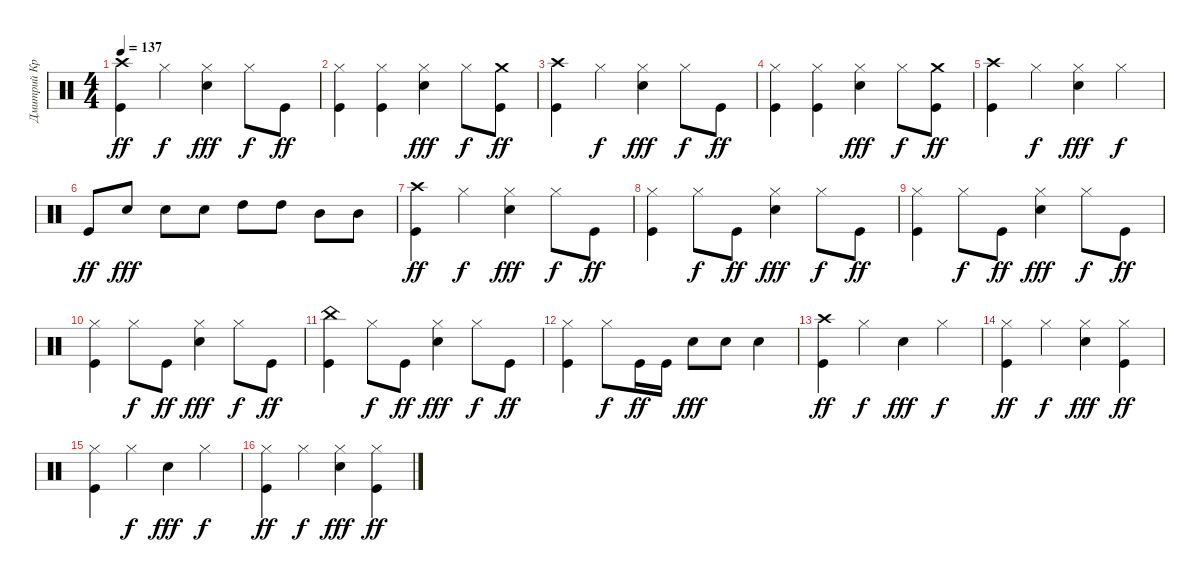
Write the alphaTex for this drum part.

\track ("Дмитрий Кревенков" "Дмитрий Кр") {instrument percussion}
\staff {score}
\articulation defaults
\ts (4 4)
\tempo 137
\clef neutral
\ks c
("Kick (hit)" "Crash high (hit)").4{dy ff} "Hi-Hat (closed)".4{dy f} ("Snare (hit) 2" "Hi-Hat (closed)").4{dy fff} "Hi-Hat (closed)".8{dy f} "Kick (hit)".8{dy ff} |
("Kick (hit)" "Hi-Hat (closed)").4 ("Kick (hit)" "Hi-Hat (closed)").4 ("Snare (hit) 2" "Hi-Hat (closed)").4{dy fff} "Hi-Hat (closed)".8{dy f} ("Crash medium (hit)" "Kick (hit)").8{dy ff} |
("Kick (hit)" "Crash high (hit)").4 "Hi-Hat (closed)".4{dy f} ("Snare (hit) 2" "Hi-Hat (closed)").4{dy fff} "Hi-Hat (closed)".8{dy f} "Kick (hit)".8{dy ff} |
("Kick (hit)" "Hi-Hat (closed)").4 ("Kick (hit)" "Hi-Hat (closed)").4 ("Snare (hit) 2" "Hi-Hat (closed)").4{dy fff} "Hi-Hat (closed)".8{dy f} ("Kick (hit)" "Crash medium (hit)").8{dy ff} |
("Crash high (hit)" "Kick (hit)").4 "Hi-Hat (closed)".4{dy f} ("Snare (hit) 2" "Hi-Hat (closed)").4{dy fff} "Hi-Hat (closed)".4{dy f} |
"Kick (hit)".8{dy ff} "Snare (hit) 2".8{dy fff} "Snare (hit) 2".8 "Snare (hit) 2".8 "High Tom (hit)".8 "High Tom (hit)".8 "Mid Tom (hit)".8 "Mid Tom (hit)".8 |
("Crash high (hit)" "Kick (hit)").4{dy ff} "Hi-Hat (closed)".4{dy f} ("Snare (hit) 2" "Hi-Hat (closed)").4{dy fff} "Hi-Hat (closed)".8{dy f} "Kick (hit)".8{dy ff} |
("Kick (hit)" "Hi-Hat (closed)").4 "Hi-Hat (closed)".8{dy f} "Kick (hit)".8{dy ff} ("Snare (hit) 2" "Hi-Hat (closed)").4{dy fff} "Hi-Hat (closed)".8{dy f} "Kick (hit)".8{dy ff} |
("Kick (hit)" "Hi-Hat (closed)").4 "Hi-Hat (closed)".8{dy f} "Kick (hit)".8{dy ff} ("Snare (hit) 2" "Hi-Hat (closed)").4{dy fff} "Hi-Hat (closed)".8{dy f} "Kick (hit)".8{dy ff} |
("Kick (hit)" "Hi-Hat (closed)").4 "Hi-Hat (closed)".8{dy f} "Kick (hit)".8{dy ff} ("Snare (hit) 2" "Hi-Hat (closed)").4{dy fff} "Hi-Hat (closed)".8{dy f} "Kick (hit)".8{dy ff} |
("China (hit)" "Kick (hit)").4 "Hi-Hat (closed)".8{dy f} "Kick (hit)".8{dy ff} ("Snare (hit) 2" "Hi-Hat (closed)").4{dy fff} "Hi-Hat (closed)".8{dy f} "Kick (hit)".8{dy ff} |
("Kick (hit)" "Hi-Hat (closed)").4 "Hi-Hat (closed)".8{dy f} "Kick (hit)".16{dy ff} "Kick (hit)".16 "Snare (hit) 2".8{dy fff} "Snare (hit) 2".8 "Snare (hit) 2".4 |
("Kick (hit)" "Crash high (hit)").4{dy ff} "Hi-Hat (closed)".4{dy f} "Snare (hit) 2".4{dy fff} "Hi-Hat (closed)".4{dy f} |
("Kick (hit)" "Hi-Hat (closed)").4{dy ff} "Hi-Hat (closed)".4{dy f} ("Snare (hit) 2" "Hi-Hat (closed)").4{dy fff} ("Kick (hit)" "Hi-Hat (closed)").4{dy ff} |
("Hi-Hat (closed)" "Kick (hit)").4 "Hi-Hat (closed)".4{dy f} "Snare (hit) 2".4{dy fff} "Hi-Hat (closed)".4{dy f} |
("Kick (hit)" "Hi-Hat (closed)").4{dy ff} "Hi-Hat (closed)".4{dy f} ("Snare (hit) 2" "Hi-Hat (closed)").4{dy fff} ("Kick (hit)" "Hi-Hat (closed)").4{dy ff}
